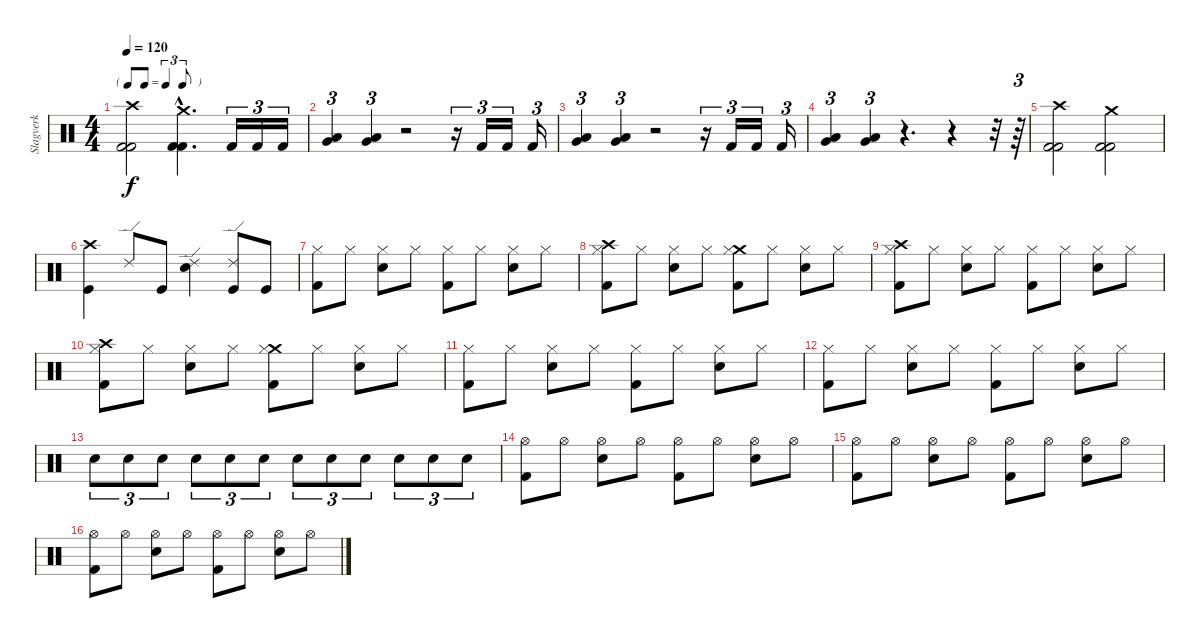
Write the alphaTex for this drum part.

\track ("Slagverk" "Slagverk") {instrument percussion}
\staff {score}
\articulation defaults
\ts (4 4)
\tf triplet8th
\tempo 120
\clef neutral
\ks c
("Crash high (hit)" "Kick (hit) 2" "Kick (hit) 2").2{dy f} ("Crash medium (hit)"{hac} "Kick (hit) 2"{hac} "Kick (hit) 2"{hac}).4{d} "Kick (hit) 2".16{tu (3 2)} "Kick (hit) 2".16{tu (3 2)} "Kick (hit) 2".16{tu (3 2)} |
("Low Tom (hit)" "Very Low Tom (hit)").4{tu (3 2)} ("Low Tom (hit)" "Very Low Tom (hit)").4{tu (3 2)} r.2 r.16{tu (3 2)} "Kick (hit) 2".16{tu (3 2)} "Kick (hit) 2".16{tu (3 2)} "Kick (hit) 2".16{tu (3 2)} |
("Low Tom (hit)" "Very Low Tom (hit)").4{tu (3 2)} ("Low Tom (hit)" "Very Low Tom (hit)").4{tu (3 2)} r.2 r.16{tu (3 2)} "Kick (hit) 2".16{tu (3 2)} "Kick (hit) 2".16{tu (3 2)} "Kick (hit) 2".16{tu (3 2)} |
("Low Tom (hit)" "Very Low Tom (hit)").4{tu (3 2)} ("Low Tom (hit)" "Very Low Tom (hit)").4{tu (3 2)} r.4{d} r.4 r.32 r.64{tu (3 2)} |
("Crash high (hit)" "Kick (hit) 2" "Kick (hit) 2").2 ("Crash medium (hit)" "Kick (hit) 2" "Kick (hit) 2").2 |
("Crash high (hit)" "Kick (hit)").4 "Ride (edge) 2".8 "Kick (hit)".8 ("Ride (edge) 2" "Electric Snare (hit)").4 ("Ride (edge) 2" "Kick (hit)").8 "Kick (hit)".8 |
("Hi-Hat (closed)" "Kick (hit) 2").8 "Hi-Hat (closed)".8 ("Electric Snare (hit)" "Hi-Hat (closed)").8 "Hi-Hat (closed)".8 ("Hi-Hat (closed)" "Kick (hit) 2").8 "Hi-Hat (closed)".8 ("Electric Snare (hit)" "Hi-Hat (closed)").8 "Hi-Hat (closed)".8 |
("Crash high (hit)" "Hi-Hat (closed)" "Kick (hit) 2").8 "Hi-Hat (closed)".8 ("Electric Snare (hit)" "Hi-Hat (closed)").8 "Hi-Hat (closed)".8 ("Crash medium (hit)" "Hi-Hat (closed)" "Kick (hit) 2").8 "Hi-Hat (closed)".8 ("Electric Snare (hit)" "Hi-Hat (closed)").8 "Hi-Hat (closed)".8 |
("Crash high (hit)" "Hi-Hat (closed)" "Kick (hit) 2").8 "Hi-Hat (closed)".8 ("Electric Snare (hit)" "Hi-Hat (closed)").8 "Hi-Hat (closed)".8 ("Hi-Hat (closed)" "Kick (hit) 2").8 "Hi-Hat (closed)".8 ("Electric Snare (hit)" "Hi-Hat (closed)").8 "Hi-Hat (closed)".8 |
("Crash high (hit)" "Hi-Hat (closed)" "Kick (hit) 2").8 "Hi-Hat (closed)".8 ("Electric Snare (hit)" "Hi-Hat (closed)").8 "Hi-Hat (closed)".8 ("Crash medium (hit)" "Hi-Hat (closed)" "Kick (hit) 2").8 "Hi-Hat (closed)".8 ("Electric Snare (hit)" "Hi-Hat (closed)").8 "Hi-Hat (closed)".8 |
("Hi-Hat (closed)" "Kick (hit) 2").8 "Hi-Hat (closed)".8 ("Electric Snare (hit)" "Hi-Hat (closed)").8 "Hi-Hat (closed)".8 ("Hi-Hat (closed)" "Kick (hit) 2").8 "Hi-Hat (closed)".8 ("Electric Snare (hit)" "Hi-Hat (closed)").8 "Hi-Hat (closed)".8 |
("Hi-Hat (closed)" "Kick (hit) 2").8 "Hi-Hat (closed)".8 ("Electric Snare (hit)" "Hi-Hat (closed)").8 "Hi-Hat (closed)".8 ("Hi-Hat (closed)" "Kick (hit) 2").8 "Hi-Hat (closed)".8 ("Electric Snare (hit)" "Hi-Hat (closed)").8 "Hi-Hat (closed)".8 |
"Electric Snare (hit)".8{tu (3 2)} "Electric Snare (hit)".8{tu (3 2)} "Electric Snare (hit)".8{tu (3 2)} "Electric Snare (hit)".8{tu (3 2)} "Electric Snare (hit)".8{tu (3 2)} "Electric Snare (hit)".8{tu (3 2)} "Electric Snare (hit)".8{tu (3 2)} "Electric Snare (hit)".8{tu (3 2)} "Electric Snare (hit)".8{tu (3 2)} "Electric Snare (hit)".8{tu (3 2)} "Electric Snare (hit)".8{tu (3 2)} "Electric Snare (hit)".8{tu (3 2)} |
("Hi-Hat (open)" "Kick (hit) 2").8 "Hi-Hat (open)".8 ("Electric Snare (hit)" "Hi-Hat (open)").8 "Hi-Hat (open)".8 ("Hi-Hat (open)" "Kick (hit) 2").8 "Hi-Hat (open)".8 ("Electric Snare (hit)" "Hi-Hat (open)").8 "Hi-Hat (open)".8 |
("Hi-Hat (open)" "Kick (hit) 2").8 "Hi-Hat (open)".8 ("Electric Snare (hit)" "Hi-Hat (open)").8 "Hi-Hat (open)".8 ("Hi-Hat (open)" "Kick (hit) 2").8 "Hi-Hat (open)".8 ("Electric Snare (hit)" "Hi-Hat (open)").8 "Hi-Hat (open)".8 |
("Hi-Hat (open)" "Kick (hit) 2").8 "Hi-Hat (open)".8 ("Electric Snare (hit)" "Hi-Hat (open)").8 "Hi-Hat (open)".8 ("Hi-Hat (open)" "Kick (hit) 2").8 "Hi-Hat (open)".8 ("Electric Snare (hit)" "Hi-Hat (open)").8 "Hi-Hat (open)".8
